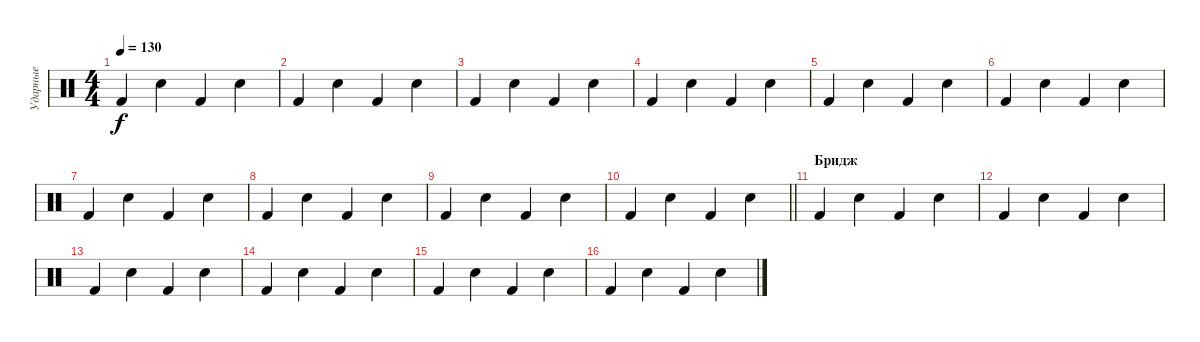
\track ("Ударные" "Ударные") {instrument percussion}
\staff {score}
\articulation defaults
\ts (4 4)
\tempo 130
\clef neutral
\ks c "Kick (hit) 2".4{dy f} "Electric Snare (hit)".4 "Kick (hit) 2".4 "Electric Snare (hit)".4
|
"Kick (hit) 2".4 "Electric Snare (hit)".4 "Kick (hit) 2".4 "Electric Snare (hit)".4 |
"Kick (hit) 2".4 "Electric Snare (hit)".4 "Kick (hit) 2".4 "Electric Snare (hit)".4 |
"Kick (hit) 2".4 "Electric Snare (hit)".4 "Kick (hit) 2".4 "Electric Snare (hit)".4 |
"Kick (hit) 2".4 "Electric Snare (hit)".4 "Kick (hit) 2".4 "Electric Snare (hit)".4 |
"Kick (hit) 2".4 "Electric Snare (hit)".4 "Kick (hit) 2".4 "Electric Snare (hit)".4 |
"Kick (hit) 2".4 "Electric Snare (hit)".4 "Kick (hit) 2".4 "Electric Snare (hit)".4 |
"Kick (hit) 2".4 "Electric Snare (hit)".4 "Kick (hit) 2".4 "Electric Snare (hit)".4 |
"Kick (hit) 2".4 "Electric Snare (hit)".4 "Kick (hit) 2".4 "Electric Snare (hit)".4 |
\barLineRight lightlight "Kick (hit) 2".4 "Electric Snare (hit)".4 "Kick (hit) 2".4 "Electric Snare (hit)".4
|
\section ("" "Бридж")
"Kick (hit) 2".4 "Electric Snare (hit)".4 "Kick (hit) 2".4 "Electric Snare (hit)".4 |
"Kick (hit) 2".4 "Electric Snare (hit)".4 "Kick (hit) 2".4 "Electric Snare (hit)".4 |
"Kick (hit) 2".4 "Electric Snare (hit)".4 "Kick (hit) 2".4 "Electric Snare (hit)".4 |
"Kick (hit) 2".4 "Electric Snare (hit)".4 "Kick (hit) 2".4 "Electric Snare (hit)".4 |
"Kick (hit) 2".4 "Electric Snare (hit)".4 "Kick (hit) 2".4 "Electric Snare (hit)".4 |
"Kick (hit) 2".4 "Electric Snare (hit)".4 "Kick (hit) 2".4 "Electric Snare (hit)".4
